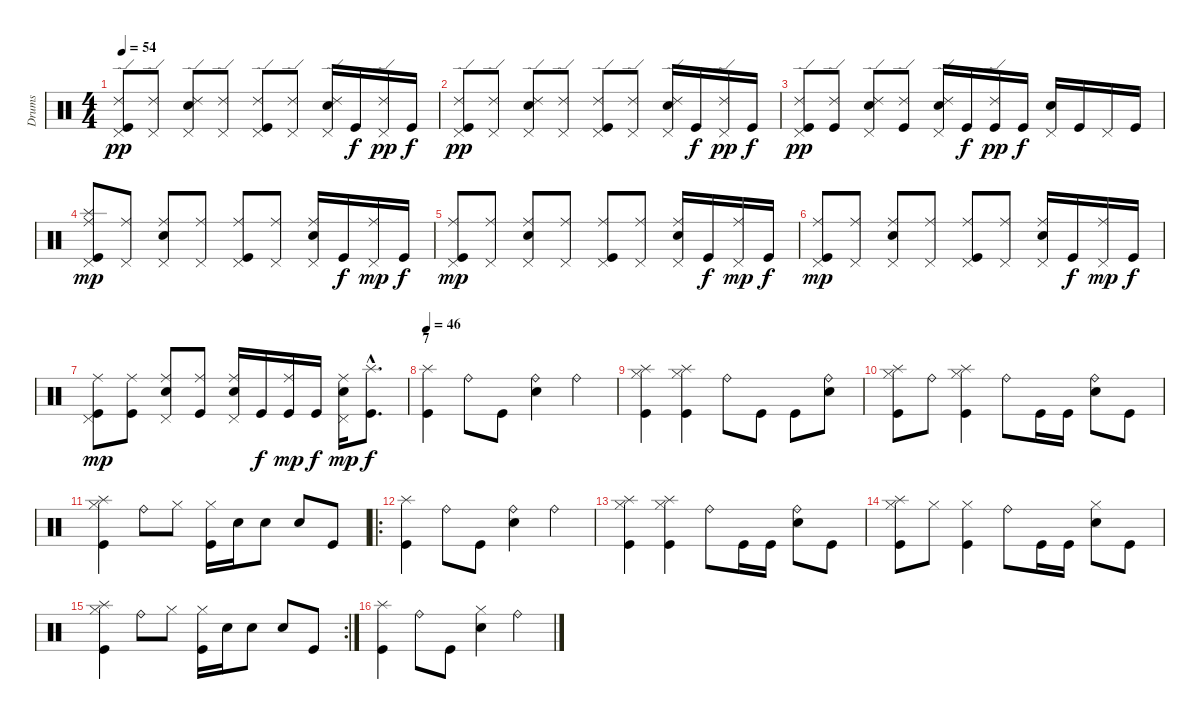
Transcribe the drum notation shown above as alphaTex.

\track ("Drums" "Drums") {instrument percussion}
\staff {score}
\articulation defaults
\ts (4 4)
\tempo 54
\clef neutral
\ks c
("Kick (hit)" "Pedal Hi-Hat (hit)" "Ride (edge) 2").8{dy pp} ("Pedal Hi-Hat (hit)" "Ride (edge) 2").8 ("Electric Snare (hit)" "Pedal Hi-Hat (hit)" "Ride (edge) 2").8 ("Pedal Hi-Hat (hit)" "Ride (edge) 2").8 ("Kick (hit)" "Pedal Hi-Hat (hit)" "Ride (edge) 2").8 ("Pedal Hi-Hat (hit)" "Ride (edge) 2").8 ("Electric Snare (hit)" "Pedal Hi-Hat (hit)" "Ride (edge) 2").16 "Kick (hit)".16{dy f} ("Pedal Hi-Hat (hit)" "Ride (edge) 2").16{dy pp} "Kick (hit)".16{dy f} |
("Kick (hit)" "Pedal Hi-Hat (hit)" "Ride (edge) 2").8{dy pp} ("Pedal Hi-Hat (hit)" "Ride (edge) 2").8 ("Electric Snare (hit)" "Pedal Hi-Hat (hit)" "Ride (edge) 2").8 ("Pedal Hi-Hat (hit)" "Ride (edge) 2").8 ("Kick (hit)" "Pedal Hi-Hat (hit)" "Ride (edge) 2").8 ("Pedal Hi-Hat (hit)" "Ride (edge) 2").8 ("Electric Snare (hit)" "Pedal Hi-Hat (hit)" "Ride (edge) 2").16 "Kick (hit)".16{dy f} ("Pedal Hi-Hat (hit)" "Ride (edge) 2").16{dy pp} "Kick (hit)".16{dy f} |
("Kick (hit)" "Pedal Hi-Hat (hit)" "Ride (edge) 2").8{dy pp} ("Kick (hit)" "Ride (edge) 2").8 ("Electric Snare (hit)" "Pedal Hi-Hat (hit)" "Ride (edge) 2").8 ("Kick (hit)" "Ride (edge) 2").8 ("Electric Snare (hit)" "Pedal Hi-Hat (hit)" "Ride (edge) 2").16 "Kick (hit)".16{dy f} ("Kick (hit)" "Ride (edge) 2").16{dy pp} "Kick (hit)".16{dy f} ("Electric Snare (hit)" "Pedal Hi-Hat (hit)").16 "Kick (hit)".16 "Pedal Hi-Hat (hit)".16 "Kick (hit)".16 |
("Kick (hit)" "Pedal Hi-Hat (hit)" "Splash (hit)" "Ride (middle)").8{dy mp} ("Pedal Hi-Hat (hit)" "Ride (middle)").8 ("Electric Snare (hit)" "Pedal Hi-Hat (hit)" "Ride (middle)").8 ("Pedal Hi-Hat (hit)" "Ride (middle)").8 ("Kick (hit)" "Pedal Hi-Hat (hit)" "Ride (middle)").8 ("Pedal Hi-Hat (hit)" "Ride (middle)").8 ("Electric Snare (hit)" "Pedal Hi-Hat (hit)" "Ride (middle)").16 "Kick (hit)".16{dy f} ("Pedal Hi-Hat (hit)" "Ride (middle)").16{dy mp} "Kick (hit)".16{dy f} |
("Kick (hit)" "Pedal Hi-Hat (hit)" "Ride (middle)").8{dy mp} ("Pedal Hi-Hat (hit)" "Ride (middle)").8 ("Electric Snare (hit)" "Pedal Hi-Hat (hit)" "Ride (middle)").8 ("Pedal Hi-Hat (hit)" "Ride (middle)").8 ("Kick (hit)" "Pedal Hi-Hat (hit)" "Ride (middle)").8 ("Pedal Hi-Hat (hit)" "Ride (middle)").8 ("Electric Snare (hit)" "Pedal Hi-Hat (hit)" "Ride (middle)").16 "Kick (hit)".16{dy f} ("Pedal Hi-Hat (hit)" "Ride (middle)").16{dy mp} "Kick (hit)".16{dy f} |
("Kick (hit)" "Pedal Hi-Hat (hit)" "Ride (middle)").8{dy mp} ("Pedal Hi-Hat (hit)" "Ride (middle)").8 ("Electric Snare (hit)" "Pedal Hi-Hat (hit)" "Ride (middle)").8 ("Pedal Hi-Hat (hit)" "Ride (middle)").8 ("Kick (hit)" "Pedal Hi-Hat (hit)" "Ride (middle)").8 ("Pedal Hi-Hat (hit)" "Ride (middle)").8 ("Electric Snare (hit)" "Pedal Hi-Hat (hit)" "Ride (middle)").16 "Kick (hit)".16{dy f} ("Pedal Hi-Hat (hit)" "Ride (middle)").16{dy mp} "Kick (hit)".16{dy f} |
("Kick (hit)" "Pedal Hi-Hat (hit)" "Ride (middle)").8{dy mp} ("Kick (hit)" "Ride (middle)").8 ("Electric Snare (hit)" "Pedal Hi-Hat (hit)" "Ride (middle)").8 ("Kick (hit)" "Ride (middle)").8 ("Electric Snare (hit)" "Pedal Hi-Hat (hit)" "Ride (middle)").16 "Kick (hit)".16{dy f} ("Kick (hit)" "Ride (middle)").16{dy mp} "Kick (hit)".16{dy f} ("Electric Snare (hit)" "Pedal Hi-Hat (hit)" "Ride (middle)").16{dy mp} ("Kick (hit)"{hac} "Splash (hit)"{hac}).8{d dy f} |
\section ("" "7")
\tempo 46
("Kick (hit)" "Splash (hit)").4 "Ride (bell)".8 "Kick (hit)".8 ("Ride (bell)" "Electric Snare (hit)").4 "Ride (bell)".4 |
("Hi-Hat (closed)" "Kick (hit)" "Splash (hit)").4 ("Hi-Hat (closed)" "Kick (hit)" "Splash (hit)").4 "Ride (bell)".8 "Kick (hit)".8 "Kick (hit)".8 ("Ride (bell)" "Electric Snare (hit)").8 |
("Hi-Hat (closed)" "Kick (hit)" "Splash (hit)").8 "Ride (bell)".8 ("Hi-Hat (closed)" "Kick (hit)" "Splash (hit)").4 "Ride (bell)".8 "Kick (hit)".16 "Kick (hit)".16 ("Ride (bell)" "Electric Snare (hit)").8 "Kick (hit)".8 |
("Hi-Hat (closed)" "Kick (hit)" "Splash (hit)").4 "Ride (bell)".8 "Hi-Hat (closed)".8 ("Hi-Hat (closed)" "Kick (hit)").16 "Electric Snare (hit)".16 "Electric Snare (hit)".8 "Electric Snare (hit)".8 "Kick (hit)".8 |
\ro
("Kick (hit)" "Splash (hit)").4 "Ride (bell)".8 "Kick (hit)".8 ("Ride (bell)" "Electric Snare (hit)").4 "Ride (bell)".4 |
("Hi-Hat (closed)" "Kick (hit)" "Splash (hit)").4 ("Hi-Hat (closed)" "Kick (hit)" "Splash (hit)").4 "Ride (bell)".8 "Kick (hit)".16 "Kick (hit)".16 ("Ride (bell)" "Electric Snare (hit)").8 "Kick (hit)".8 |
("Hi-Hat (closed)" "Kick (hit)" "Splash (hit)").8 "Hi-Hat (closed)".8 ("Hi-Hat (closed)" "Kick (hit)").4 "Ride (bell)".8 "Kick (hit)".16 "Kick (hit)".16 ("Hi-Hat (closed)" "Electric Snare (hit)").8 "Kick (hit)".8 |
\rc 2
("Hi-Hat (closed)" "Kick (hit)" "Splash (hit)").4 "Ride (bell)".8 "Hi-Hat (closed)".8 ("Hi-Hat (closed)" "Kick (hit)").16 "Electric Snare (hit)".16 "Electric Snare (hit)".8 "Electric Snare (hit)".8 "Kick (hit)".8 |
("Kick (hit)" "Splash (hit)").4 "Ride (bell)".8 "Kick (hit)".8 ("Hi-Hat (closed)" "Electric Snare (hit)").4 "Ride (bell)".4
